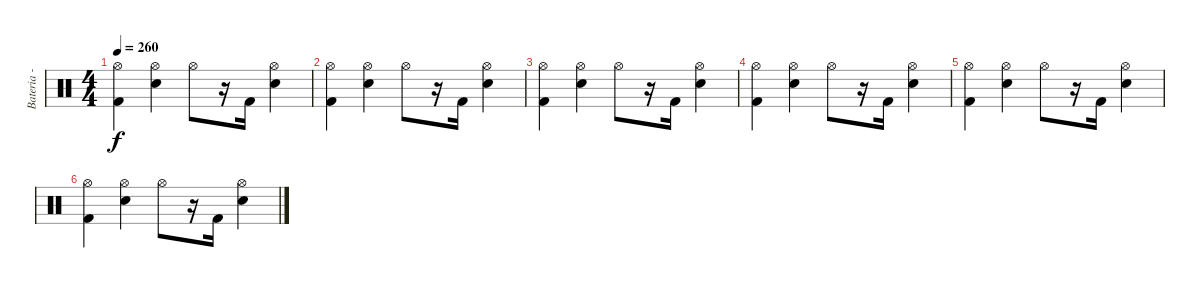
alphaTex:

\track ("Bateria - Larzon" "Bateria - ") {instrument percussion}
\staff {score}
\articulation defaults
\ts (4 4)
\tempo 260
\clef neutral
\ks c
("Kick (hit) 2" "Hi-Hat (open)").4{dy f} ("Electric Snare (hit)" "Hi-Hat (open)").4 "Hi-Hat (open)".8 r.16 "Kick (hit) 2".16 ("Electric Snare (hit)" "Hi-Hat (open)").4 |
("Kick (hit) 2" "Hi-Hat (open)").4 ("Electric Snare (hit)" "Hi-Hat (open)").4 "Hi-Hat (open)".8 r.16 "Kick (hit) 2".16 ("Electric Snare (hit)" "Hi-Hat (open)").4 |
("Kick (hit) 2" "Hi-Hat (open)").4 ("Electric Snare (hit)" "Hi-Hat (open)").4 "Hi-Hat (open)".8 r.16 "Kick (hit) 2".16 ("Electric Snare (hit)" "Hi-Hat (open)").4 |
("Kick (hit) 2" "Hi-Hat (open)").4 ("Electric Snare (hit)" "Hi-Hat (open)").4 "Hi-Hat (open)".8 r.16 "Kick (hit) 2".16 ("Electric Snare (hit)" "Hi-Hat (open)").4 |
("Kick (hit) 2" "Hi-Hat (open)").4 ("Electric Snare (hit)" "Hi-Hat (open)").4 "Hi-Hat (open)".8 r.16 "Kick (hit) 2".16 ("Electric Snare (hit)" "Hi-Hat (open)").4 |
("Kick (hit) 2" "Hi-Hat (open)").4 ("Electric Snare (hit)" "Hi-Hat (open)").4 "Hi-Hat (open)".8 r.16 "Kick (hit) 2".16 ("Electric Snare (hit)" "Hi-Hat (open)").4
